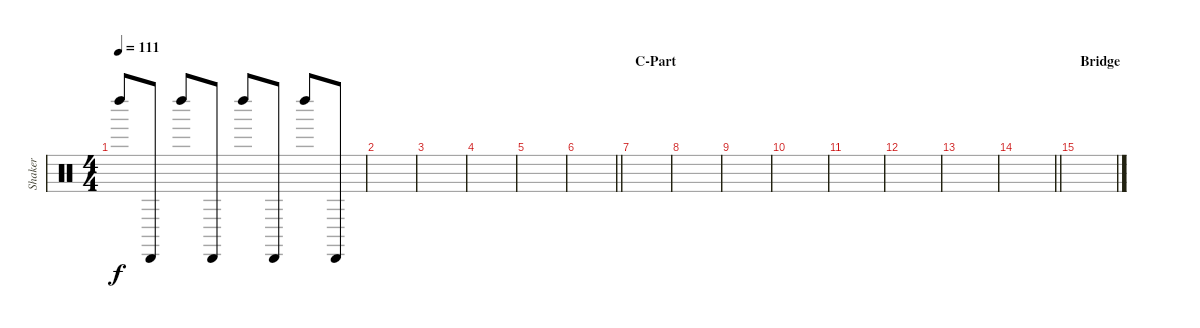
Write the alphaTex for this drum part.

\track ("Shaker" "Shaker") {instrument percussion}
\staff {score}
\articulation defaults
\ts (4 4)
\tempo 111
\clef neutral
\ks c "Left Maraca (hit)".8{dy f} "Cabasa (hit)".8 "Left Maraca (hit)".8 "Cabasa (hit)".8 "Left Maraca (hit)".8 "Cabasa (hit)".8 "Left Maraca (hit)".8 "Cabasa (hit)".8
|
|
|
|
|
\barLineRight lightlight
|
\section ("" "C-Part")
|
|
|
|
|
|
|
\barLineRight lightlight
|
\section ("" "Bridge")
